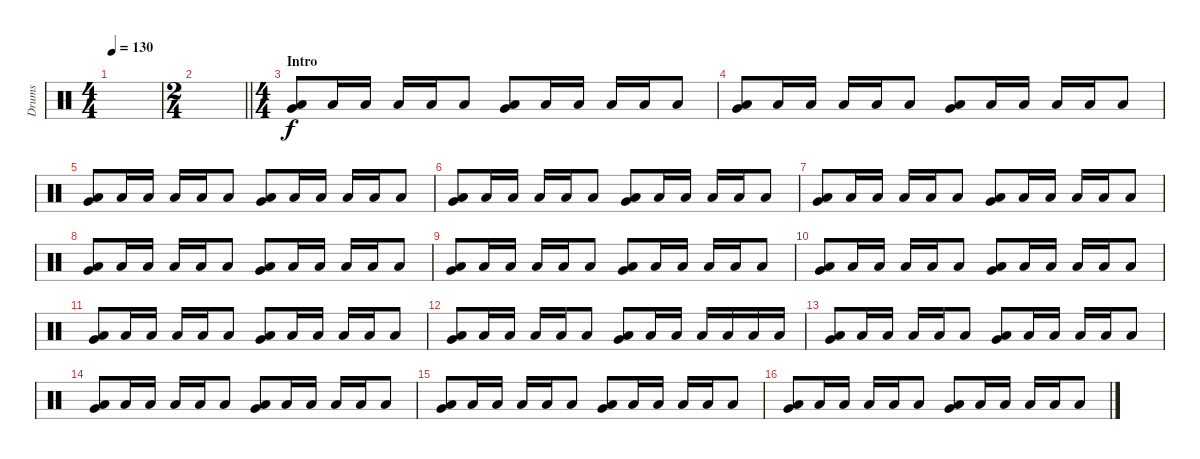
\track ("Drums" "Drums") {instrument percussion}
\staff {score}
\articulation defaults
\ts (4 4)
\tempo 130
\clef neutral
\ks c
|
\ts (2 4)
\barLineRight lightlight
|
\ts (4 4)
\section ("" "Intro")
("Very Low Tom (hit)" "Low Floor Tom (hit)").8 "Low Floor Tom (hit)".16 "Low Tom (hit)".16 "Low Floor Tom (hit)".16 "Low Tom (hit)".16 "Low Floor Tom (hit)".8 ("Very Low Tom (hit)" "Low Floor Tom (hit)").8 "Low Floor Tom (hit)".16 "Low Tom (hit)".16 "Low Floor Tom (hit)".16 "Low Tom (hit)".16 "Low Floor Tom (hit)".8 |
("Very Low Tom (hit)" "Low Floor Tom (hit)").8 "Low Floor Tom (hit)".16 "Low Tom (hit)".16 "Low Floor Tom (hit)".16 "Low Tom (hit)".16 "Low Floor Tom (hit)".8 ("Very Low Tom (hit)" "Low Floor Tom (hit)").8 "Low Floor Tom (hit)".16 "Low Tom (hit)".16 "Low Floor Tom (hit)".16 "Low Tom (hit)".16 "Low Floor Tom (hit)".8 |
("Very Low Tom (hit)" "Low Floor Tom (hit)").8 "Low Floor Tom (hit)".16 "Low Tom (hit)".16 "Low Floor Tom (hit)".16 "Low Tom (hit)".16 "Low Floor Tom (hit)".8 ("Very Low Tom (hit)" "Low Floor Tom (hit)").8 "Low Floor Tom (hit)".16 "Low Tom (hit)".16 "Low Floor Tom (hit)".16 "Low Tom (hit)".16 "Low Floor Tom (hit)".8 |
("Very Low Tom (hit)" "Low Floor Tom (hit)").8 "Low Floor Tom (hit)".16 "Low Tom (hit)".16 "Low Floor Tom (hit)".16 "Low Tom (hit)".16 "Low Floor Tom (hit)".8 ("Very Low Tom (hit)" "Low Floor Tom (hit)").8 "Low Floor Tom (hit)".16 "Low Tom (hit)".16 "Low Floor Tom (hit)".16 "Low Tom (hit)".16 "Low Floor Tom (hit)".8 |
("Very Low Tom (hit)" "Low Floor Tom (hit)").8 "Low Floor Tom (hit)".16 "Low Tom (hit)".16 "Low Floor Tom (hit)".16 "Low Tom (hit)".16 "Low Floor Tom (hit)".8 ("Very Low Tom (hit)" "Low Floor Tom (hit)").8 "Low Floor Tom (hit)".16 "Low Tom (hit)".16 "Low Floor Tom (hit)".16 "Low Tom (hit)".16 "Low Floor Tom (hit)".8 |
("Very Low Tom (hit)" "Low Floor Tom (hit)").8 "Low Floor Tom (hit)".16 "Low Tom (hit)".16 "Low Floor Tom (hit)".16 "Low Tom (hit)".16 "Low Floor Tom (hit)".8 ("Very Low Tom (hit)" "Low Floor Tom (hit)").8 "Low Floor Tom (hit)".16 "Low Tom (hit)".16 "Low Floor Tom (hit)".16 "Low Tom (hit)".16 "Low Floor Tom (hit)".8 |
("Very Low Tom (hit)" "Low Floor Tom (hit)").8 "Low Floor Tom (hit)".16 "Low Tom (hit)".16 "Low Floor Tom (hit)".16 "Low Tom (hit)".16 "Low Floor Tom (hit)".8 ("Very Low Tom (hit)" "Low Floor Tom (hit)").8 "Low Floor Tom (hit)".16 "Low Tom (hit)".16 "Low Floor Tom (hit)".16 "Low Tom (hit)".16 "Low Floor Tom (hit)".8 |
("Very Low Tom (hit)" "Low Floor Tom (hit)").8 "Low Floor Tom (hit)".16 "Low Tom (hit)".16 "Low Floor Tom (hit)".16 "Low Tom (hit)".16 "Low Floor Tom (hit)".8 ("Very Low Tom (hit)" "Low Floor Tom (hit)").8 "Low Floor Tom (hit)".16 "Low Tom (hit)".16 "Low Floor Tom (hit)".16 "Low Tom (hit)".16 "Low Floor Tom (hit)".8 |
("Very Low Tom (hit)" "Low Floor Tom (hit)").8 "Low Floor Tom (hit)".16 "Low Tom (hit)".16 "Low Floor Tom (hit)".16 "Low Tom (hit)".16 "Low Floor Tom (hit)".8 ("Very Low Tom (hit)" "Low Floor Tom (hit)").8 "Low Floor Tom (hit)".16 "Low Tom (hit)".16 "Low Floor Tom (hit)".16 "Low Tom (hit)".16 "Low Floor Tom (hit)".8 |
("Very Low Tom (hit)" "Low Floor Tom (hit)").8 "Low Floor Tom (hit)".16 "Low Tom (hit)".16 "Low Floor Tom (hit)".16 "Low Tom (hit)".16 "Low Floor Tom (hit)".8 ("Very Low Tom (hit)" "Low Floor Tom (hit)").8 "Low Floor Tom (hit)".16 "Low Tom (hit)".16 "Low Floor Tom (hit)".16 "Low Tom (hit)".16 "Low Floor Tom (hit)".16 "Low Tom (hit)".16 |
("Very Low Tom (hit)" "Low Floor Tom (hit)").8 "Low Floor Tom (hit)".16 "Low Tom (hit)".16 "Low Floor Tom (hit)".16 "Low Tom (hit)".16 "Low Floor Tom (hit)".8 ("Very Low Tom (hit)" "Low Floor Tom (hit)").8 "Low Floor Tom (hit)".16 "Low Tom (hit)".16 "Low Floor Tom (hit)".16 "Low Tom (hit)".16 "Low Floor Tom (hit)".8 |
("Very Low Tom (hit)" "Low Floor Tom (hit)").8 "Low Floor Tom (hit)".16 "Low Tom (hit)".16 "Low Floor Tom (hit)".16 "Low Tom (hit)".16 "Low Floor Tom (hit)".8 ("Very Low Tom (hit)" "Low Floor Tom (hit)").8 "Low Floor Tom (hit)".16 "Low Tom (hit)".16 "Low Floor Tom (hit)".16 "Low Tom (hit)".16 "Low Floor Tom (hit)".8 |
("Very Low Tom (hit)" "Low Floor Tom (hit)").8 "Low Floor Tom (hit)".16 "Low Tom (hit)".16 "Low Floor Tom (hit)".16 "Low Tom (hit)".16 "Low Floor Tom (hit)".8 ("Very Low Tom (hit)" "Low Floor Tom (hit)").8 "Low Floor Tom (hit)".16 "Low Tom (hit)".16 "Low Floor Tom (hit)".16 "Low Tom (hit)".16 "Low Floor Tom (hit)".8 |
("Very Low Tom (hit)" "Low Floor Tom (hit)").8 "Low Floor Tom (hit)".16 "Low Tom (hit)".16 "Low Floor Tom (hit)".16 "Low Tom (hit)".16 "Low Floor Tom (hit)".8 ("Very Low Tom (hit)" "Low Floor Tom (hit)").8 "Low Floor Tom (hit)".16 "Low Tom (hit)".16 "Low Floor Tom (hit)".16 "Low Tom (hit)".16 "Low Floor Tom (hit)".8
